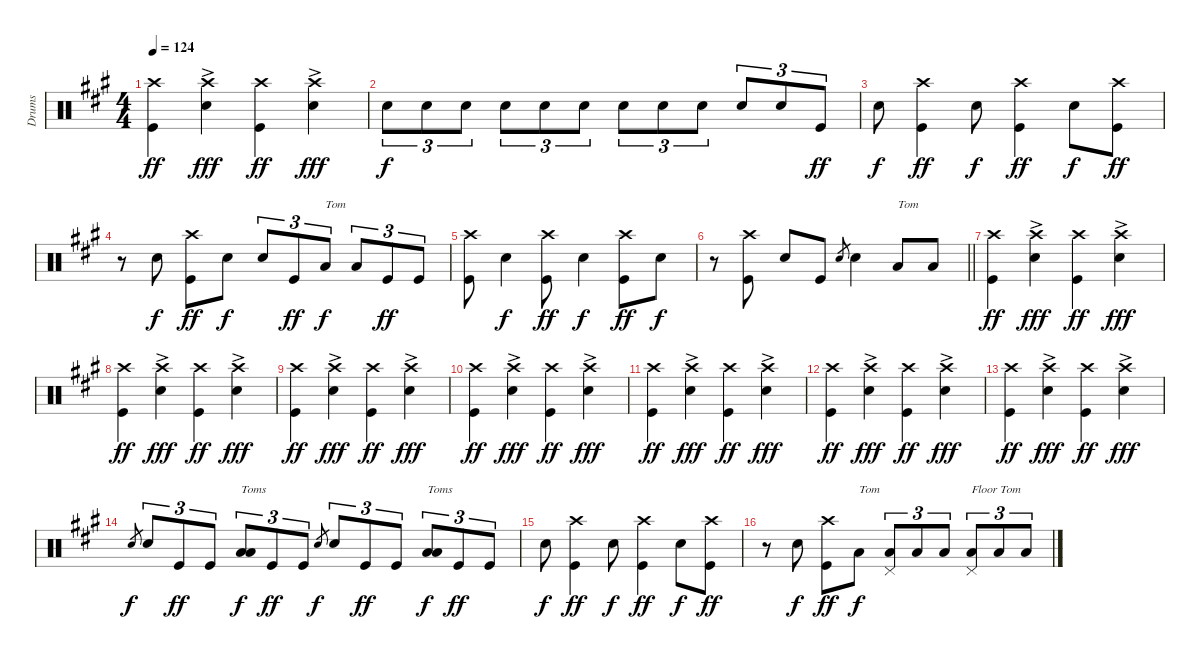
\track ("Drums" "Drums") {instrument percussion}
\staff {score}
\articulation defaults
\ts (4 4)
\tempo 124
\clef neutral
\ks a
("Crash high (hit)" "Kick (hit)").4{dy ff} ("Crash high (hit)"{ac} "Snare (hit) 2").4{dy fff} ("Crash high (hit)" "Kick (hit)").4{dy ff} ("Crash high (hit)"{ac} "Snare (hit) 2").4{dy fff} |
"Snare (hit) 2".8{tu (3 2) dy f} "Snare (hit) 2".8{tu (3 2)} "Snare (hit) 2".8{tu (3 2)} "Snare (hit) 2".8{tu (3 2)} "Snare (hit) 2".8{tu (3 2)} "Snare (hit) 2".8{tu (3 2)} "Snare (hit) 2".8{tu (3 2)} "Snare (hit) 2".8{tu (3 2)} "Snare (hit) 2".8{tu (3 2)} "Snare (hit) 2".8{tu (3 2)} "Snare (hit) 2".8{tu (3 2)} "Kick (hit)".8{tu (3 2) dy ff} |
"Snare (hit) 2".8{dy f} ("Crash high (hit)" "Kick (hit)").4{dy ff} "Snare (hit) 2".8{dy f} ("Crash high (hit)" "Kick (hit)").4{dy ff} "Snare (hit) 2".8{dy f} ("Crash high (hit)" "Kick (hit)").8{dy ff} |
r.8 "Snare (hit) 2".8{dy f} ("Crash high (hit)" "Kick (hit)").8{dy ff} "Snare (hit) 2".8{dy f} "Snare (hit) 2".8{tu (3 2)} "Kick (hit)".8{tu (3 2) dy ff} "Low Tom (hit)".8{tu (3 2) txt "Tom" dy f} "Low Tom (hit)".8{tu (3 2)} "Kick (hit)".8{tu (3 2) dy ff} "Kick (hit)".8{tu (3 2)} |
("Crash high (hit)" "Kick (hit)").8 "Snare (hit) 2".4{dy f} ("Crash high (hit)" "Kick (hit)").8{dy ff} "Snare (hit) 2".4{dy f} ("Crash high (hit)" "Kick (hit)").8{dy ff} "Snare (hit) 2".8{dy f} |
\barLineRight lightlight
r.8 ("Crash high (hit)" "Kick (hit)").8 "Snare (hit) 2".8 "Kick (hit)".8 "Snare (hit) 2".8{gr} "Snare (hit) 2".4 "Low Tom (hit)".8{txt "Tom"} "Low Tom (hit)".8 |
("Crash high (hit)" "Kick (hit)").4{dy ff} ("Crash high (hit)"{ac} "Snare (hit) 2").4{dy fff} ("Crash high (hit)" "Kick (hit)").4{dy ff} ("Crash high (hit)"{ac} "Snare (hit) 2").4{dy fff} |
("Crash high (hit)" "Kick (hit)").4{dy ff} ("Crash high (hit)"{ac} "Snare (hit) 2").4{dy fff} ("Crash high (hit)" "Kick (hit)").4{dy ff} ("Crash high (hit)"{ac} "Snare (hit) 2").4{dy fff} |
("Crash high (hit)" "Kick (hit)").4{dy ff} ("Crash high (hit)"{ac} "Snare (hit) 2").4{dy fff} ("Crash high (hit)" "Kick (hit)").4{dy ff} ("Crash high (hit)"{ac} "Snare (hit) 2").4{dy fff} |
("Crash high (hit)" "Kick (hit)").4{dy ff} ("Crash high (hit)"{ac} "Snare (hit) 2").4{dy fff} ("Crash high (hit)" "Kick (hit)").4{dy ff} ("Crash high (hit)"{ac} "Snare (hit) 2").4{dy fff} |
("Crash high (hit)" "Kick (hit)").4{dy ff} ("Crash high (hit)"{ac} "Snare (hit) 2").4{dy fff} ("Crash high (hit)" "Kick (hit)").4{dy ff} ("Crash high (hit)"{ac} "Snare (hit) 2").4{dy fff} |
("Crash high (hit)" "Kick (hit)").4{dy ff} ("Crash high (hit)"{ac} "Snare (hit) 2").4{dy fff} ("Crash high (hit)" "Kick (hit)").4{dy ff} ("Crash high (hit)"{ac} "Snare (hit) 2").4{dy fff} |
("Crash high (hit)" "Kick (hit)").4{dy ff} ("Crash high (hit)"{ac} "Snare (hit) 2").4{dy fff} ("Crash high (hit)" "Kick (hit)").4{dy ff} ("Crash high (hit)"{ac} "Snare (hit) 2").4{dy fff} |
"Snare (hit) 2".8{gr dy f} "Snare (hit) 2".8{tu (3 2)} "Kick (hit)".8{tu (3 2) dy ff} "Kick (hit)".8{tu (3 2)} ("Low Tom (hit)" "Low Floor Tom (hit)").8{tu (3 2) txt "Toms" dy f} "Kick (hit)".8{tu (3 2) dy ff} "Kick (hit)".8{tu (3 2)} "Snare (hit) 2".8{gr dy f} "Snare (hit) 2".8{tu (3 2)} "Kick (hit)".8{tu (3 2) dy ff} "Kick (hit)".8{tu (3 2)} ("Low Tom (hit)" "Low Floor Tom (hit)").8{tu (3 2) txt "Toms" dy f} "Kick (hit)".8{tu (3 2) dy ff} "Kick (hit)".8{tu (3 2)} |
"Snare (hit) 2".8{dy f} ("Crash high (hit)" "Kick (hit)").4{dy ff} "Snare (hit) 2".8{dy f} ("Crash high (hit)" "Kick (hit)").4{dy ff} "Snare (hit) 2".8{dy f} ("Crash high (hit)" "Kick (hit)").8{dy ff} |
r.8 "Snare (hit) 2".8{dy f} ("Crash high (hit)" "Kick (hit)").8{dy ff} "Low Tom (hit)".8{txt "Tom" dy f} ("Pedal Hi-Hat (hit)" "Low Tom (hit)").8{tu (3 2)} "Low Tom (hit)".8{tu (3 2)} "Low Tom (hit)".8{tu (3 2)} ("Pedal Hi-Hat (hit)" "Low Floor Tom (hit)").8{tu (3 2) txt "Floor Tom"} "Low Floor Tom (hit)".8{tu (3 2)} "Low Floor Tom (hit)".8{tu (3 2)}
